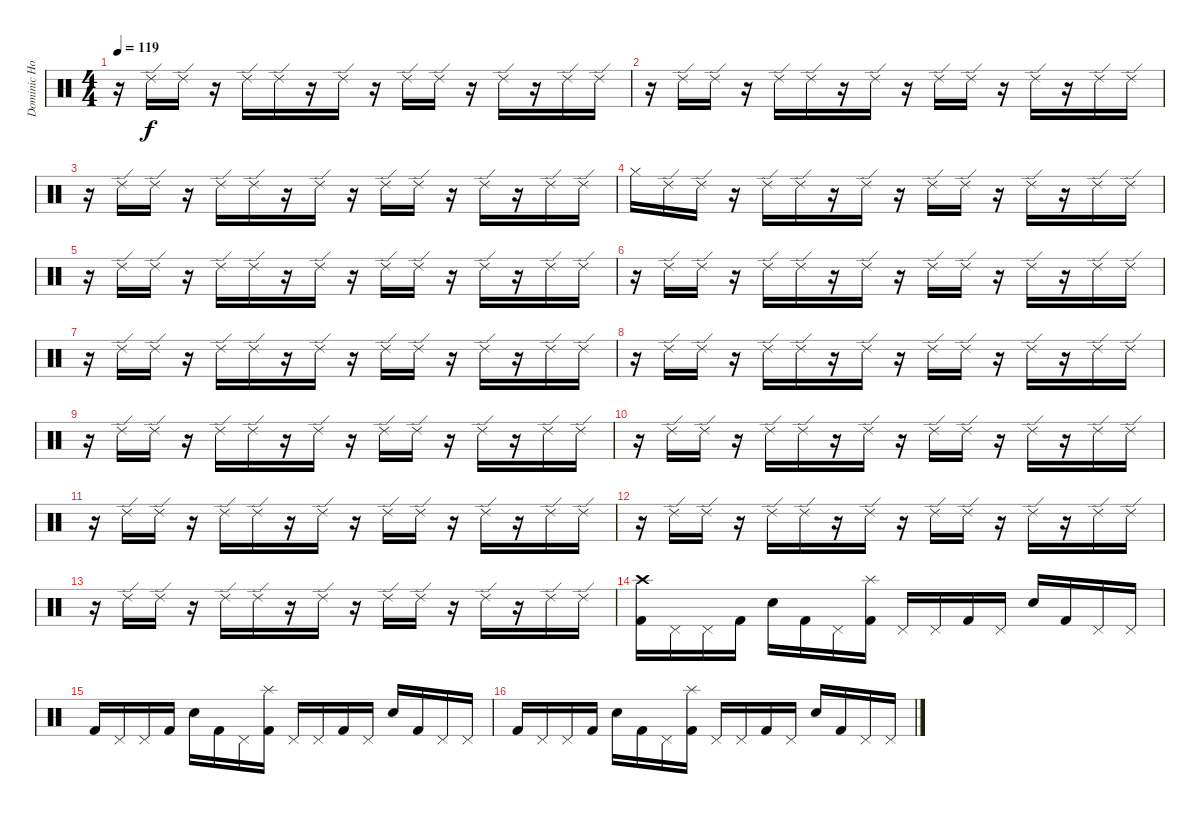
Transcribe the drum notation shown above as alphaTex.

\track ("Dominic Howard" "Dominic Ho") {instrument percussion}
\staff {score}
\articulation defaults
\ts (4 4)
\tempo 119
\clef neutral
\ks c
r.16{dy f} "Ride (edge) 2".16 "Ride (edge) 2".16 r.16 "Ride (edge) 2".16 "Ride (edge) 2".16 r.16 "Ride (edge) 2".16 r.16 "Ride (edge) 2".16 "Ride (edge) 2".16 r.16 "Ride (edge) 2".16 r.16 "Ride (edge) 2".16 "Ride (edge) 2".16 |
r.16 "Ride (edge) 2".16 "Ride (edge) 2".16 r.16 "Ride (edge) 2".16 "Ride (edge) 2".16 r.16 "Ride (edge) 2".16 r.16 "Ride (edge) 2".16 "Ride (edge) 2".16 r.16 "Ride (edge) 2".16 r.16 "Ride (edge) 2".16 "Ride (edge) 2".16 |
r.16 "Ride (edge) 2".16 "Ride (edge) 2".16 r.16 "Ride (edge) 2".16 "Ride (edge) 2".16 r.16 "Ride (edge) 2".16 r.16 "Ride (edge) 2".16 "Ride (edge) 2".16 r.16 "Ride (edge) 2".16 r.16 "Ride (edge) 2".16 "Ride (edge) 2".16 |
"Hi-Hat (closed)".16 "Ride (edge) 2".16 "Ride (edge) 2".16 r.16 "Ride (edge) 2".16 "Ride (edge) 2".16 r.16 "Ride (edge) 2".16 r.16 "Ride (edge) 2".16 "Ride (edge) 2".16 r.16 "Ride (edge) 2".16 r.16 "Ride (edge) 2".16 "Ride (edge) 2".16 |
r.16 "Ride (edge) 2".16 "Ride (edge) 2".16 r.16 "Ride (edge) 2".16 "Ride (edge) 2".16 r.16 "Ride (edge) 2".16 r.16 "Ride (edge) 2".16 "Ride (edge) 2".16 r.16 "Ride (edge) 2".16 r.16 "Ride (edge) 2".16 "Ride (edge) 2".16 |
r.16 "Ride (edge) 2".16 "Ride (edge) 2".16 r.16 "Ride (edge) 2".16 "Ride (edge) 2".16 r.16 "Ride (edge) 2".16 r.16 "Ride (edge) 2".16 "Ride (edge) 2".16 r.16 "Ride (edge) 2".16 r.16 "Ride (edge) 2".16 "Ride (edge) 2".16 |
r.16 "Ride (edge) 2".16 "Ride (edge) 2".16 r.16 "Ride (edge) 2".16 "Ride (edge) 2".16 r.16 "Ride (edge) 2".16 r.16 "Ride (edge) 2".16 "Ride (edge) 2".16 r.16 "Ride (edge) 2".16 r.16 "Ride (edge) 2".16 "Ride (edge) 2".16 |
r.16 "Ride (edge) 2".16 "Ride (edge) 2".16 r.16 "Ride (edge) 2".16 "Ride (edge) 2".16 r.16 "Ride (edge) 2".16 r.16 "Ride (edge) 2".16 "Ride (edge) 2".16 r.16 "Ride (edge) 2".16 r.16 "Ride (edge) 2".16 "Ride (edge) 2".16 |
r.16 "Ride (edge) 2".16 "Ride (edge) 2".16 r.16 "Ride (edge) 2".16 "Ride (edge) 2".16 r.16 "Ride (edge) 2".16 r.16 "Ride (edge) 2".16 "Ride (edge) 2".16 r.16 "Ride (edge) 2".16 r.16 "Ride (edge) 2".16 "Ride (edge) 2".16 |
r.16 "Ride (edge) 2".16 "Ride (edge) 2".16 r.16 "Ride (edge) 2".16 "Ride (edge) 2".16 r.16 "Ride (edge) 2".16 r.16 "Ride (edge) 2".16 "Ride (edge) 2".16 r.16 "Ride (edge) 2".16 r.16 "Ride (edge) 2".16 "Ride (edge) 2".16 |
r.16 "Ride (edge) 2".16 "Ride (edge) 2".16 r.16 "Ride (edge) 2".16 "Ride (edge) 2".16 r.16 "Ride (edge) 2".16 r.16 "Ride (edge) 2".16 "Ride (edge) 2".16 r.16 "Ride (edge) 2".16 r.16 "Ride (edge) 2".16 "Ride (edge) 2".16 |
r.16 "Ride (edge) 2".16 "Ride (edge) 2".16 r.16 "Ride (edge) 2".16 "Ride (edge) 2".16 r.16 "Ride (edge) 2".16 r.16 "Ride (edge) 2".16 "Ride (edge) 2".16 r.16 "Ride (edge) 2".16 r.16 "Ride (edge) 2".16 "Ride (edge) 2".16 |
r.16 "Ride (edge) 2".16 "Ride (edge) 2".16 r.16 "Ride (edge) 2".16 "Ride (edge) 2".16 r.16 "Ride (edge) 2".16 r.16 "Ride (edge) 2".16 "Ride (edge) 2".16 r.16 "Ride (edge) 2".16 r.16 "Ride (edge) 2".16 "Ride (edge) 2".16 |
("Kick (hit) 2" "Crash high (hit)").16 "Pedal Hi-Hat (hit)".16 "Pedal Hi-Hat (hit)".16 "Kick (hit) 2".16 "Electric Snare (hit)".16 "Kick (hit) 2".16 "Pedal Hi-Hat (hit)".16 ("Splash (hit)" "Kick (hit) 2").16 "Pedal Hi-Hat (hit)".16 "Pedal Hi-Hat (hit)".16 "Kick (hit) 2".16 "Pedal Hi-Hat (hit)".16 "Electric Snare (hit)".16 "Kick (hit) 2".16 "Pedal Hi-Hat (hit)".16 "Pedal Hi-Hat (hit)".16 |
"Kick (hit) 2".16 "Pedal Hi-Hat (hit)".16 "Pedal Hi-Hat (hit)".16 "Kick (hit) 2".16 "Electric Snare (hit)".16 "Kick (hit) 2".16 "Pedal Hi-Hat (hit)".16 ("Splash (hit)" "Kick (hit) 2").16 "Pedal Hi-Hat (hit)".16 "Pedal Hi-Hat (hit)".16 "Kick (hit) 2".16 "Pedal Hi-Hat (hit)".16 "Electric Snare (hit)".16 "Kick (hit) 2".16 "Pedal Hi-Hat (hit)".16 "Pedal Hi-Hat (hit)".16 |
"Kick (hit) 2".16 "Pedal Hi-Hat (hit)".16 "Pedal Hi-Hat (hit)".16 "Kick (hit) 2".16 "Electric Snare (hit)".16 "Kick (hit) 2".16 "Pedal Hi-Hat (hit)".16 ("Splash (hit)" "Kick (hit) 2").16 "Pedal Hi-Hat (hit)".16 "Pedal Hi-Hat (hit)".16 "Kick (hit) 2".16 "Pedal Hi-Hat (hit)".16 "Electric Snare (hit)".16 "Kick (hit) 2".16 "Pedal Hi-Hat (hit)".16 "Pedal Hi-Hat (hit)".16
